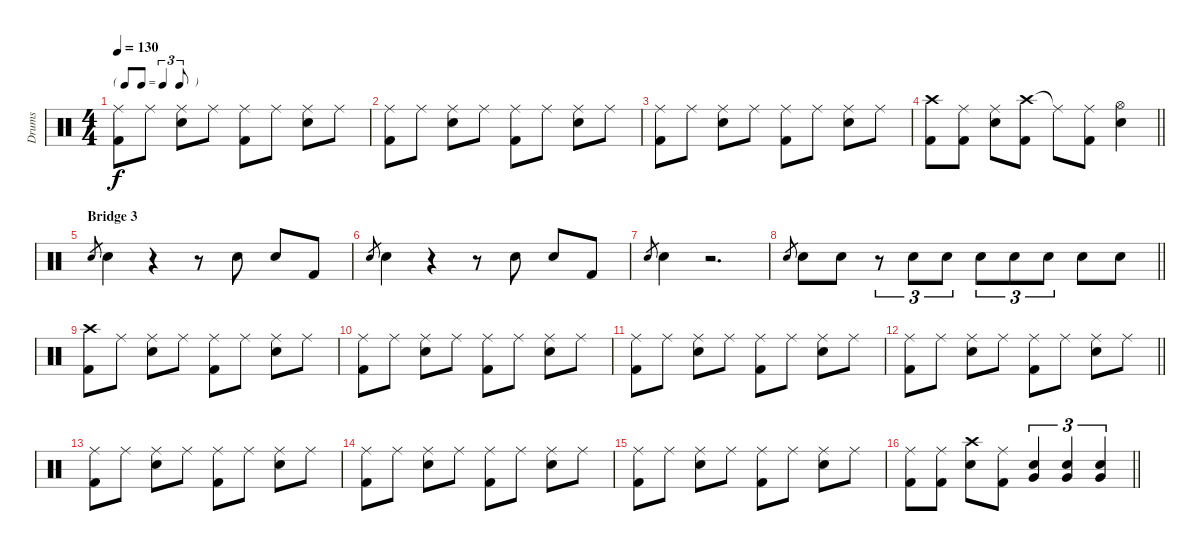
\track ("Drums" "Drums") {instrument percussion}
\staff {score}
\articulation defaults
\ts (4 4)
\tf triplet8th
\tempo 130
\clef neutral
\ks c
("Ride (middle)" "Kick (hit) 2").8{dy f} "Ride (middle)".8 ("Ride (middle)" "Snare (hit) 2").8 "Ride (middle)".8 ("Ride (middle)" "Kick (hit) 2").8 "Ride (middle)".8 ("Ride (middle)" "Snare (hit) 2").8 "Ride (middle)".8 |
("Ride (middle)" "Kick (hit) 2").8 "Ride (middle)".8 ("Ride (middle)" "Snare (hit) 2").8 "Ride (middle)".8 ("Ride (middle)" "Kick (hit) 2").8 "Ride (middle)".8 ("Ride (middle)" "Snare (hit) 2").8 "Ride (middle)".8 |
("Ride (middle)" "Kick (hit) 2").8 "Ride (middle)".8 ("Ride (middle)" "Snare (hit) 2").8 "Ride (middle)".8 ("Ride (middle)" "Kick (hit) 2").8 "Ride (middle)".8 ("Ride (middle)" "Snare (hit) 2").8 "Ride (middle)".8 |
\barLineRight lightlight
("Crash high (hit)" "Kick (hit) 2").8 ("Ride (middle)" "Kick (hit) 2").8 ("Ride (middle)" "Snare (hit) 2").8 ("Crash high (hit)" "Kick (hit) 2").8 "Ride (middle)"{t}.8 ("Ride (middle)" "Kick (hit) 2").8 ("Hi-Hat (open)" "Snare (hit) 2").4 |
\section ("" "Bridge 3")
"Snare (hit) 2".8{gr} "Snare (hit) 2".4 r.4 r.8 "Snare (hit) 2".8 "Snare (hit) 2".8 "Kick (hit) 2".8 |
"Snare (hit) 2".8{gr} "Snare (hit) 2".4 r.4 r.8 "Snare (hit) 2".8 "Snare (hit) 2".8 "Kick (hit) 2".8 |
"Snare (hit) 2".8{gr} "Snare (hit) 2".4 r.2{d} |
\barLineRight lightlight "Snare (hit) 2".8{gr} "Snare (hit) 2".8 "Snare (hit) 2".8
r.8{tu (3 2)} "Snare (hit) 2".8{tu (3 2)} "Snare (hit) 2".8{tu (3 2)} "Snare (hit) 2".8{tu (3 2)} "Snare (hit) 2".8{tu (3 2)} "Snare (hit) 2".8{tu (3 2)} "Snare (hit) 2".8 "Snare (hit) 2".8 |
("Crash high (hit)" "Kick (hit) 2").8 "Ride (middle)".8 ("Ride (middle)" "Snare (hit) 2").8 "Ride (middle)".8 ("Ride (middle)" "Kick (hit) 2").8 "Ride (middle)".8 ("Ride (middle)" "Snare (hit) 2").8 "Ride (middle)".8 |
("Ride (middle)" "Kick (hit) 2").8 "Ride (middle)".8 ("Ride (middle)" "Snare (hit) 2").8 "Ride (middle)".8 ("Ride (middle)" "Kick (hit) 2").8 "Ride (middle)".8 ("Ride (middle)" "Snare (hit) 2").8 "Ride (middle)".8 |
("Ride (middle)" "Kick (hit) 2").8 "Ride (middle)".8 ("Ride (middle)" "Snare (hit) 2").8 "Ride (middle)".8 ("Ride (middle)" "Kick (hit) 2").8 "Ride (middle)".8 ("Ride (middle)" "Snare (hit) 2").8 "Ride (middle)".8 |
\barLineRight lightlight
("Ride (middle)" "Kick (hit) 2").8 "Ride (middle)".8 ("Ride (middle)" "Snare (hit) 2").8 "Ride (middle)".8 ("Ride (middle)" "Kick (hit) 2").8 "Ride (middle)".8 ("Ride (middle)" "Snare (hit) 2").8 "Ride (middle)".8 |
("Ride (middle)" "Kick (hit) 2").8 "Ride (middle)".8 ("Ride (middle)" "Snare (hit) 2").8 "Ride (middle)".8 ("Ride (middle)" "Kick (hit) 2").8 "Ride (middle)".8 ("Ride (middle)" "Snare (hit) 2").8 "Ride (middle)".8 |
("Ride (middle)" "Kick (hit) 2").8 "Ride (middle)".8 ("Ride (middle)" "Snare (hit) 2").8 "Ride (middle)".8 ("Ride (middle)" "Kick (hit) 2").8 "Ride (middle)".8 ("Ride (middle)" "Snare (hit) 2").8 "Ride (middle)".8 |
("Ride (middle)" "Kick (hit) 2").8 "Ride (middle)".8 ("Ride (middle)" "Snare (hit) 2").8 "Ride (middle)".8 ("Ride (middle)" "Kick (hit) 2").8 "Ride (middle)".8 ("Ride (middle)" "Snare (hit) 2").8 "Ride (middle)".8 |
\barLineRight lightlight
("Ride (middle)" "Kick (hit) 2").8 ("Ride (middle)" "Kick (hit) 2").8 ("Crash high (hit)" "Snare (hit) 2").8 ("Ride (middle)" "Kick (hit) 2").8 ("Snare (hit) 2" "Very Low Tom (hit)").4{tu (3 2)} ("Snare (hit) 2" "Very Low Tom (hit)").4{tu (3 2)} ("Snare (hit) 2" "Very Low Tom (hit)").4{tu (3 2)}
